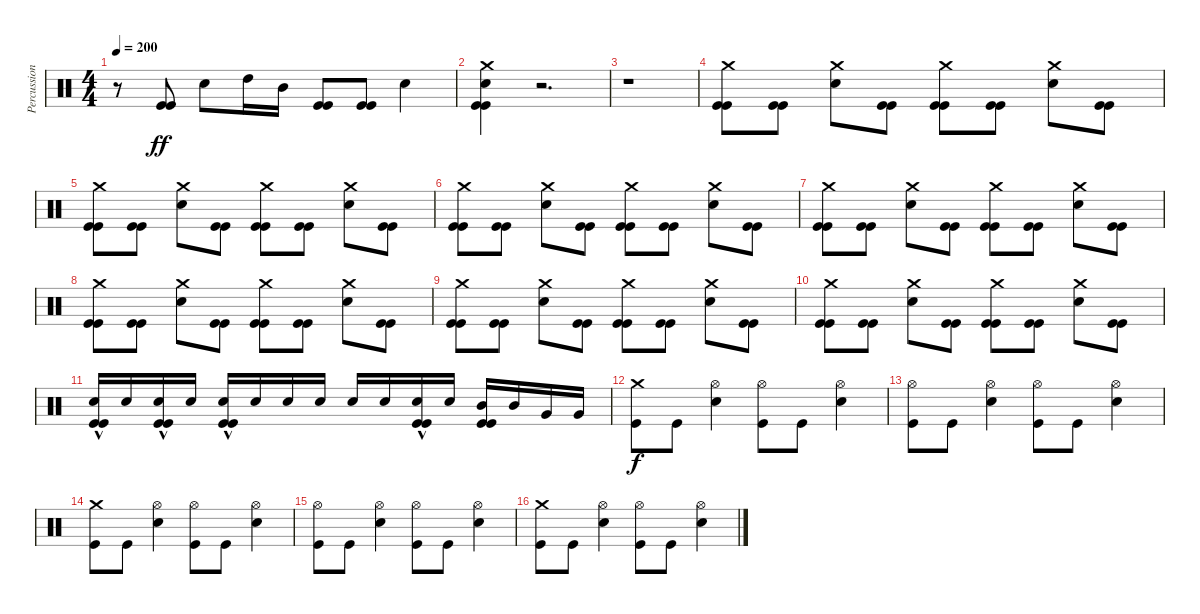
\track ("Percussion" "Percussion") {instrument percussion}
\staff {score}
\articulation defaults
\ts (4 4)
\tempo 200
\clef neutral
\ks c
r.8{dy ff} ("Kick (hit)" "Kick (hit)").8 "Snare (hit) 2".8 "High Tom (hit)".16 "Mid Tom (hit)".16 ("Kick (hit)" "Kick (hit)").8 ("Kick (hit)" "Kick (hit)").8 "Snare (hit) 2".4 |
("Crash medium (hit)" "Snare (hit) 2" "Kick (hit)" "Kick (hit)").4 r.2{d} |
r.1 |
("Crash medium (hit)" "Kick (hit)" "Kick (hit)").8 ("Kick (hit)" "Kick (hit)").8 ("Crash medium (hit)" "Snare (hit) 2").8 ("Kick (hit)" "Kick (hit)").8 ("Crash medium (hit)" "Kick (hit)" "Kick (hit)").8 ("Kick (hit)" "Kick (hit)").8 ("Crash medium (hit)" "Snare (hit) 2").8 ("Kick (hit)" "Kick (hit)").8 |
("Crash medium (hit)" "Kick (hit)" "Kick (hit)").8 ("Kick (hit)" "Kick (hit)").8 ("Crash medium (hit)" "Snare (hit) 2").8 ("Kick (hit)" "Kick (hit)").8 ("Crash medium (hit)" "Kick (hit)" "Kick (hit)").8 ("Kick (hit)" "Kick (hit)").8 ("Crash medium (hit)" "Snare (hit) 2").8 ("Kick (hit)" "Kick (hit)").8 |
("Crash medium (hit)" "Kick (hit)" "Kick (hit)").8 ("Kick (hit)" "Kick (hit)").8 ("Crash medium (hit)" "Snare (hit) 2").8 ("Kick (hit)" "Kick (hit)").8 ("Crash medium (hit)" "Kick (hit)" "Kick (hit)").8 ("Kick (hit)" "Kick (hit)").8 ("Crash medium (hit)" "Snare (hit) 2").8 ("Kick (hit)" "Kick (hit)").8 |
("Crash medium (hit)" "Kick (hit)" "Kick (hit)").8 ("Kick (hit)" "Kick (hit)").8 ("Crash medium (hit)" "Snare (hit) 2").8 ("Kick (hit)" "Kick (hit)").8 ("Crash medium (hit)" "Kick (hit)" "Kick (hit)").8 ("Kick (hit)" "Kick (hit)").8 ("Crash medium (hit)" "Snare (hit) 2").8 ("Kick (hit)" "Kick (hit)").8 |
("Crash medium (hit)" "Kick (hit)" "Kick (hit)").8 ("Kick (hit)" "Kick (hit)").8 ("Crash medium (hit)" "Snare (hit) 2").8 ("Kick (hit)" "Kick (hit)").8 ("Crash medium (hit)" "Kick (hit)" "Kick (hit)").8 ("Kick (hit)" "Kick (hit)").8 ("Crash medium (hit)" "Snare (hit) 2").8 ("Kick (hit)" "Kick (hit)").8 |
("Crash medium (hit)" "Kick (hit)" "Kick (hit)").8 ("Kick (hit)" "Kick (hit)").8 ("Crash medium (hit)" "Snare (hit) 2").8 ("Kick (hit)" "Kick (hit)").8 ("Crash medium (hit)" "Kick (hit)" "Kick (hit)").8 ("Kick (hit)" "Kick (hit)").8 ("Crash medium (hit)" "Snare (hit) 2").8 ("Kick (hit)" "Kick (hit)").8 |
("Crash medium (hit)" "Kick (hit)" "Kick (hit)").8 ("Kick (hit)" "Kick (hit)").8 ("Crash medium (hit)" "Snare (hit) 2").8 ("Kick (hit)" "Kick (hit)").8 ("Crash medium (hit)" "Kick (hit)" "Kick (hit)").8 ("Kick (hit)" "Kick (hit)").8 ("Crash medium (hit)" "Snare (hit) 2").8 ("Kick (hit)" "Kick (hit)").8 |
("Snare (hit) 2"{hac} "Kick (hit)" "Kick (hit)").16 "Snare (hit) 2".16 ("Snare (hit) 2"{hac} "Kick (hit)" "Kick (hit)").16 "Snare (hit) 2".16 ("Snare (hit) 2"{hac} "Kick (hit)" "Kick (hit)").16 "Snare (hit) 2".16 "Snare (hit) 2".16 "Snare (hit) 2".16 "Snare (hit) 2".16 "Snare (hit) 2".16 ("Snare (hit) 2"{hac} "Kick (hit)" "Kick (hit)").16 "Snare (hit) 2".16 ("Mid Tom (hit)" "Kick (hit)" "Kick (hit)").16 "Mid Tom (hit)".16 "Very Low Tom (hit)".16 "Very Low Tom (hit)".16 |
("Crash medium (hit)" "Kick (hit)").8{dy f} "Kick (hit)".8 ("Hi-Hat (open)" "Snare (hit) 2").4 ("Hi-Hat (open)" "Kick (hit)").8 "Kick (hit)".8 ("Hi-Hat (open)" "Snare (hit) 2").4 |
("Hi-Hat (open)" "Kick (hit)").8 "Kick (hit)".8 ("Hi-Hat (open)" "Snare (hit) 2").4 ("Hi-Hat (open)" "Kick (hit)").8 "Kick (hit)".8 ("Hi-Hat (open)" "Snare (hit) 2").4 |
("Crash medium (hit)" "Kick (hit)").8 "Kick (hit)".8 ("Hi-Hat (open)" "Snare (hit) 2").4 ("Hi-Hat (open)" "Kick (hit)").8 "Kick (hit)".8 ("Hi-Hat (open)" "Snare (hit) 2").4 |
("Hi-Hat (open)" "Kick (hit)").8 "Kick (hit)".8 ("Hi-Hat (open)" "Snare (hit) 2").4 ("Hi-Hat (open)" "Kick (hit)").8 "Kick (hit)".8 ("Hi-Hat (open)" "Snare (hit) 2").4 |
("Crash medium (hit)" "Kick (hit)").8 "Kick (hit)".8 ("Hi-Hat (open)" "Snare (hit) 2").4 ("Hi-Hat (open)" "Kick (hit)").8 "Kick (hit)".8 ("Hi-Hat (open)" "Snare (hit) 2").4
